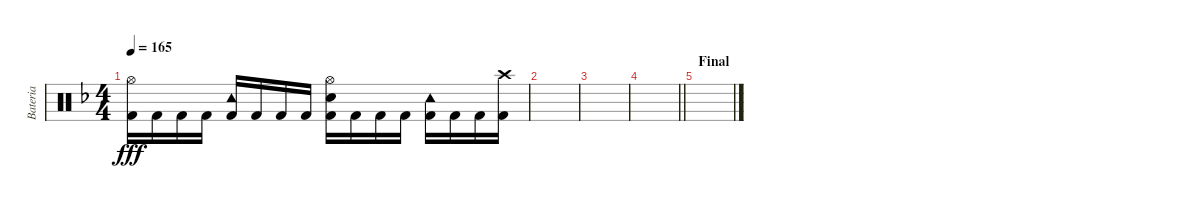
\track ("Bateria" "Bateria") {instrument percussion}
\staff {score}
\articulation defaults
\ts (4 4)
\tempo 165
\clef neutral
\ks f
("Hi-Hat (open)" "Kick (hit) 2").16{dy fff} "Kick (hit) 2".16 "Kick (hit) 2".16 "Kick (hit) 2".16 ("Tambourine (hit)" "Kick (hit) 2").16 "Kick (hit) 2".16 "Kick (hit) 2".16 "Kick (hit) 2".16 ("Hi-Hat (open)" "Snare (hit) 2" "Kick (hit) 2").16 "Kick (hit) 2".16 "Kick (hit) 2".16 "Kick (hit) 2".16 ("Tambourine (hit)" "Kick (hit) 2").16 "Kick (hit) 2".16 "Kick (hit) 2".16 ("Crash high (hit)" "Kick (hit) 2").16 |
|
|
\barLineRight lightlight
|
\section ("" "Final")
